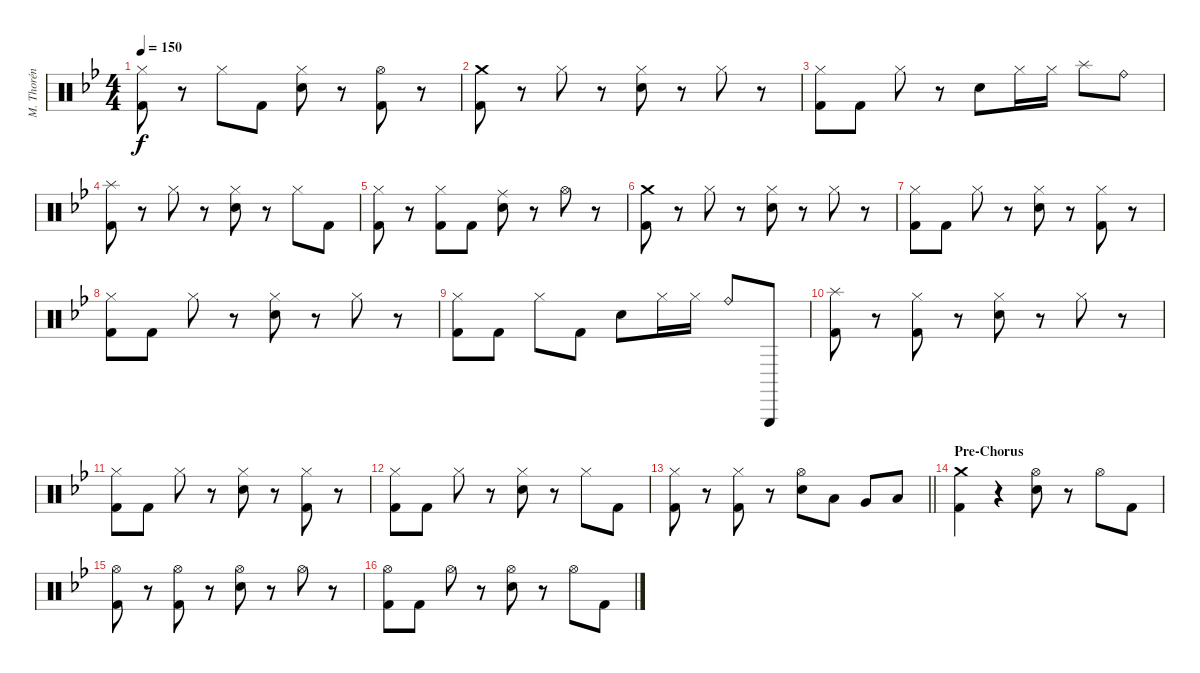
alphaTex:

\track ("M. Thorén (Drums)" "M. Thorén ") {instrument percussion}
\staff {score}
\articulation defaults
\ts (4 4)
\tempo 150
\clef neutral
\ks gminor
("Hi-Hat (closed)" "Kick (hit) 2").8{dy f} r.8 "Hi-Hat (closed)".8 "Kick (hit) 2".8 ("Hi-Hat (closed)" "Electric Snare (hit)").8 r.8 ("Hi-Hat (open)" "Kick (hit) 2").8 r.8 |
("Crash medium (hit)" "Kick (hit) 2").8 r.8 "Hi-Hat (closed)".8 r.8 ("Hi-Hat (closed)" "Electric Snare (hit)").8 r.8 "Hi-Hat (closed)".8 r.8 |
("Hi-Hat (closed)" "Kick (hit) 2").8 "Kick (hit) 2".8 "Hi-Hat (closed)".8 r.8 "Electric Snare (hit)".8 "Hi-Hat (closed)".16 "Hi-Hat (closed)".16 "Splash (hit)".8 "Ride (bell)".8 |
("Splash (hit)" "Kick (hit) 2").8 r.8 "Hi-Hat (closed)".8 r.8 ("Hi-Hat (closed)" "Electric Snare (hit)").8 r.8 "Hi-Hat (closed)".8 "Kick (hit) 2".8 |
("Hi-Hat (closed)" "Kick (hit) 2").8 r.8 ("Hi-Hat (closed)" "Kick (hit) 2").8 "Kick (hit) 2".8 ("Ride (middle)" "Electric Snare (hit)").8 r.8 "Hi-Hat (open)".8 r.8 |
("Crash medium (hit)" "Kick (hit) 2").8 r.8 "Hi-Hat (closed)".8 r.8 ("Hi-Hat (closed)" "Electric Snare (hit)").8 r.8 "Hi-Hat (closed)".8 r.8 |
("Hi-Hat (closed)" "Kick (hit) 2").8 "Kick (hit) 2".8 "Hi-Hat (closed)".8 r.8 ("Hi-Hat (closed)" "Electric Snare (hit)").8 r.8 ("Hi-Hat (closed)" "Kick (hit) 2").8 r.8 |
("Hi-Hat (closed)" "Kick (hit) 2").8 "Kick (hit) 2".8 "Hi-Hat (closed)".8 r.8 ("Hi-Hat (closed)" "Electric Snare (hit)").8 r.8 "Hi-Hat (closed)".8 r.8 |
("Hi-Hat (closed)" "Kick (hit) 2").8 "Kick (hit) 2".8 "Hi-Hat (closed)".8 "Kick (hit) 2".8 "Electric Snare (hit)".8 "Hi-Hat (closed)".16 "Hi-Hat (closed)".16 "Ride (bell)".8 "Triangle (hit)".8 |
("Splash (hit)" "Kick (hit) 2").8 r.8 ("Hi-Hat (closed)" "Kick (hit) 2").8 r.8 ("Hi-Hat (closed)" "Electric Snare (hit)").8 r.8 "Hi-Hat (closed)".8 r.8 |
("Hi-Hat (closed)" "Kick (hit) 2").8 "Kick (hit) 2".8 "Hi-Hat (closed)".8 r.8 ("Hi-Hat (closed)" "Electric Snare (hit)").8 r.8 ("Hi-Hat (closed)" "Kick (hit) 2").8 r.8 |
("Hi-Hat (closed)" "Kick (hit) 2").8 "Kick (hit) 2".8 "Hi-Hat (closed)".8 r.8 ("Hi-Hat (closed)" "Electric Snare (hit)").8 r.8 "Hi-Hat (closed)".8 "Kick (hit) 2".8 |
\barLineRight lightlight
("Hi-Hat (closed)" "Kick (hit) 2").8 r.8 ("Hi-Hat (closed)" "Kick (hit) 2").8 r.8 ("Hi-Hat (open)" "Electric Snare (hit)").8 "Low Tom (hit)".8 "Very Low Tom (hit)".8 "Low Floor Tom (hit)".8 |
\section ("" "Pre-Chorus")
("Crash medium (hit)" "Kick (hit) 2").4 r.4 ("Hi-Hat (open)" "Electric Snare (hit)").8 r.8 "Hi-Hat (open)".8 "Kick (hit) 2".8 |
("Hi-Hat (open)" "Kick (hit) 2").8 r.8 ("Hi-Hat (open)" "Kick (hit) 2").8 r.8 ("Hi-Hat (open)" "Electric Snare (hit)").8 r.8 "Hi-Hat (open)".8 r.8 |
("Hi-Hat (open)" "Kick (hit) 2").8 "Kick (hit) 2".8 "Hi-Hat (open)".8 r.8 ("Hi-Hat (open)" "Electric Snare (hit)").8 r.8 "Hi-Hat (open)".8 "Kick (hit) 2".8
